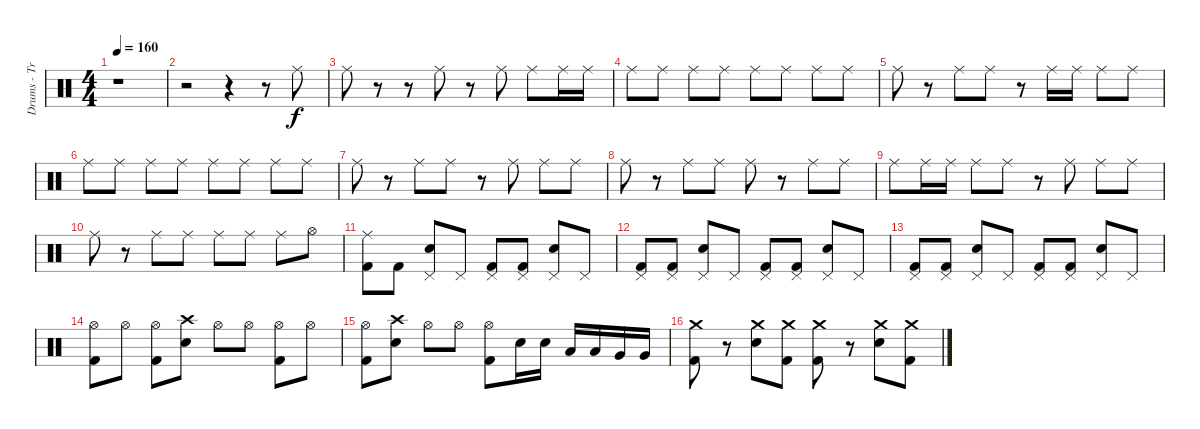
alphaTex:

\track ("Drums - Travis Barker" "Drums - Tr") {instrument percussion}
\staff {score}
\articulation defaults
\ts (4 4)
\tempo 160
\clef neutral
\ks c
r.1{dy f} |
r.2 r.4 r.8 "Ride (middle)".8 |
"Ride (middle)".8 r.8 r.8 "Ride (middle)".8 r.8 "Ride (middle)".8 "Ride (middle)".8 "Ride (middle)".16 "Ride (middle)".16 |
"Ride (middle)".8 "Ride (middle)".8 "Ride (middle)".8 "Ride (middle)".8 "Ride (middle)".8 "Ride (middle)".8 "Ride (middle)".8 "Ride (middle)".8 |
"Ride (middle)".8 r.8 "Ride (middle)".8 "Ride (middle)".8 r.8 "Ride (middle)".16 "Ride (middle)".16 "Ride (middle)".8 "Ride (middle)".8 |
"Ride (middle)".8 "Ride (middle)".8 "Ride (middle)".8 "Ride (middle)".8 "Ride (middle)".8 "Ride (middle)".8 "Ride (middle)".8 "Ride (middle)".8 |
"Ride (middle)".8 r.8 "Ride (middle)".8 "Ride (middle)".8 r.8 "Ride (middle)".8 "Ride (middle)".8 "Ride (middle)".8 |
"Ride (middle)".8 r.8 "Ride (middle)".8 "Ride (middle)".8 "Ride (middle)".8 r.8 "Ride (middle)".8 "Ride (middle)".8 |
"Ride (middle)".8 "Ride (middle)".16 "Ride (middle)".16 "Ride (middle)".8 "Ride (middle)".8 r.8 "Ride (middle)".8 "Ride (middle)".8 "Ride (middle)".8 |
"Ride (middle)".8 r.8 "Ride (middle)".8 "Ride (middle)".8 "Ride (middle)".8 "Ride (middle)".8 "Ride (middle)".8 "Hi-Hat (open)".8 |
("Ride (middle)" "Kick (hit) 2").8 "Kick (hit) 2".8 ("Pedal Hi-Hat (hit)" "Snare (hit) 2").8 "Pedal Hi-Hat (hit)".8 ("Pedal Hi-Hat (hit)" "Kick (hit) 2").8 ("Pedal Hi-Hat (hit)" "Kick (hit) 2").8 ("Pedal Hi-Hat (hit)" "Snare (hit) 2").8 "Pedal Hi-Hat (hit)".8 |
("Pedal Hi-Hat (hit)" "Kick (hit) 2").8 ("Pedal Hi-Hat (hit)" "Kick (hit) 2").8 ("Pedal Hi-Hat (hit)" "Snare (hit) 2").8 "Pedal Hi-Hat (hit)".8 ("Pedal Hi-Hat (hit)" "Kick (hit) 2").8 ("Pedal Hi-Hat (hit)" "Kick (hit) 2").8 ("Pedal Hi-Hat (hit)" "Snare (hit) 2").8 "Pedal Hi-Hat (hit)".8 |
("Pedal Hi-Hat (hit)" "Kick (hit) 2").8 ("Pedal Hi-Hat (hit)" "Kick (hit) 2").8 ("Pedal Hi-Hat (hit)" "Snare (hit) 2").8 "Pedal Hi-Hat (hit)".8 ("Pedal Hi-Hat (hit)" "Kick (hit) 2").8 ("Pedal Hi-Hat (hit)" "Kick (hit) 2").8 ("Pedal Hi-Hat (hit)" "Snare (hit) 2").8 "Pedal Hi-Hat (hit)".8 |
("Hi-Hat (open)" "Kick (hit) 2").8 "Hi-Hat (open)".8 ("Hi-Hat (open)" "Kick (hit) 2").8 ("Crash high (hit)" "Snare (hit) 2").8 "Hi-Hat (open)".8 "Hi-Hat (open)".8 ("Hi-Hat (open)" "Kick (hit) 2").8 "Hi-Hat (open)".8 |
("Hi-Hat (open)" "Kick (hit) 2").8 ("Crash high (hit)" "Snare (hit) 2").8 "Hi-Hat (open)".8 "Hi-Hat (open)".8 ("Hi-Hat (open)" "Kick (hit) 2").8 "Snare (hit) 2".16 "Snare (hit) 2".16 "Low Tom (hit)".16 "Low Tom (hit)".16 "Very Low Tom (hit)".16 "Very Low Tom (hit)".16 |
("Kick (hit) 2" "Crash medium (hit)").8 r.8 ("Snare (hit) 2" "Crash medium (hit)").8 ("Kick (hit) 2" "Crash medium (hit)").8 ("Kick (hit) 2" "Crash medium (hit)").8 r.8 ("Snare (hit) 2" "Crash medium (hit)").8 ("Kick (hit) 2" "Crash medium (hit)").8
